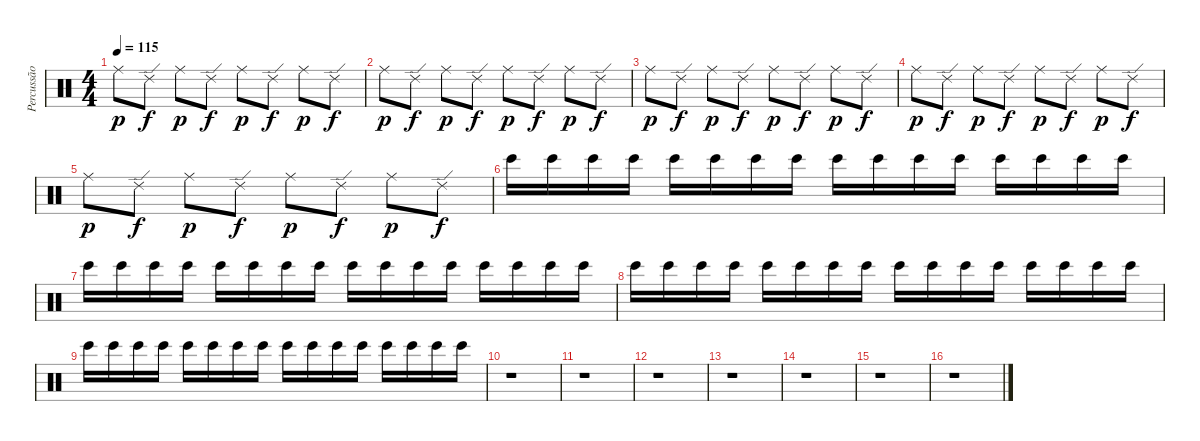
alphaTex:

\track ("Percussão" "Percussão") {instrument percussion}
\staff {score}
\articulation defaults
\ts (4 4)
\tempo 115
\clef neutral
\ks c "Ride (middle)".8{dy p} "Ride (edge) 2".8{dy f} "Ride (middle)".8{dy p} "Ride (edge) 2".8{dy f} "Ride (middle)".8{dy p} "Ride (edge) 2".8{dy f} "Ride (middle)".8{dy p} "Ride (edge) 2".8{dy f}
|
"Ride (middle)".8{dy p} "Ride (edge) 2".8{dy f} "Ride (middle)".8{dy p} "Ride (edge) 2".8{dy f} "Ride (middle)".8{dy p} "Ride (edge) 2".8{dy f} "Ride (middle)".8{dy p} "Ride (edge) 2".8{dy f} |
"Ride (middle)".8{dy p} "Ride (edge) 2".8{dy f} "Ride (middle)".8{dy p} "Ride (edge) 2".8{dy f} "Ride (middle)".8{dy p} "Ride (edge) 2".8{dy f} "Ride (middle)".8{dy p} "Ride (edge) 2".8{dy f} |
"Ride (middle)".8{dy p} "Ride (edge) 2".8{dy f} "Ride (middle)".8{dy p} "Ride (edge) 2".8{dy f} "Ride (middle)".8{dy p} "Ride (edge) 2".8{dy f} "Ride (middle)".8{dy p} "Ride (edge) 2".8{dy f} |
"Ride (middle)".8{dy p} "Ride (edge) 2".8{dy f} "Ride (middle)".8{dy p} "Ride (edge) 2".8{dy f} "Ride (middle)".8{dy p} "Ride (edge) 2".8{dy f} "Ride (middle)".8{dy p} "Ride (edge) 2".8{dy f} |
"Bongo High (hit)".16 "Bongo High (hit)".16 "Bongo High (hit)".16 "Bongo High (hit)".16 "Bongo High (hit)".16 "Bongo High (hit)".16 "Bongo High (hit)".16 "Bongo High (hit)".16 "Bongo High (hit)".16 "Bongo High (hit)".16 "Bongo High (hit)".16 "Bongo High (hit)".16 "Bongo High (hit)".16 "Bongo High (hit)".16 "Bongo High (hit)".16 "Bongo High (hit)".16 |
"Bongo High (hit)".16 "Bongo High (hit)".16 "Bongo High (hit)".16 "Bongo High (hit)".16 "Bongo High (hit)".16 "Bongo High (hit)".16 "Bongo High (hit)".16 "Bongo High (hit)".16 "Bongo High (hit)".16 "Bongo High (hit)".16 "Bongo High (hit)".16 "Bongo High (hit)".16 "Bongo High (hit)".16 "Bongo High (hit)".16 "Bongo High (hit)".16 "Bongo High (hit)".16 |
"Bongo High (hit)".16 "Bongo High (hit)".16 "Bongo High (hit)".16 "Bongo High (hit)".16 "Bongo High (hit)".16 "Bongo High (hit)".16 "Bongo High (hit)".16 "Bongo High (hit)".16 "Bongo High (hit)".16 "Bongo High (hit)".16 "Bongo High (hit)".16 "Bongo High (hit)".16 "Bongo High (hit)".16 "Bongo High (hit)".16 "Bongo High (hit)".16 "Bongo High (hit)".16 |
"Bongo High (hit)".16 "Bongo High (hit)".16 "Bongo High (hit)".16 "Bongo High (hit)".16 "Bongo High (hit)".16 "Bongo High (hit)".16 "Bongo High (hit)".16 "Bongo High (hit)".16 "Bongo High (hit)".16 "Bongo High (hit)".16 "Bongo High (hit)".16 "Bongo High (hit)".16 "Bongo High (hit)".16 "Bongo High (hit)".16 "Bongo High (hit)".16 "Bongo High (hit)".16 |
r.1 |
r.1 |
r.1 |
r.1 |
r.1 |
r.1 |
r.1
